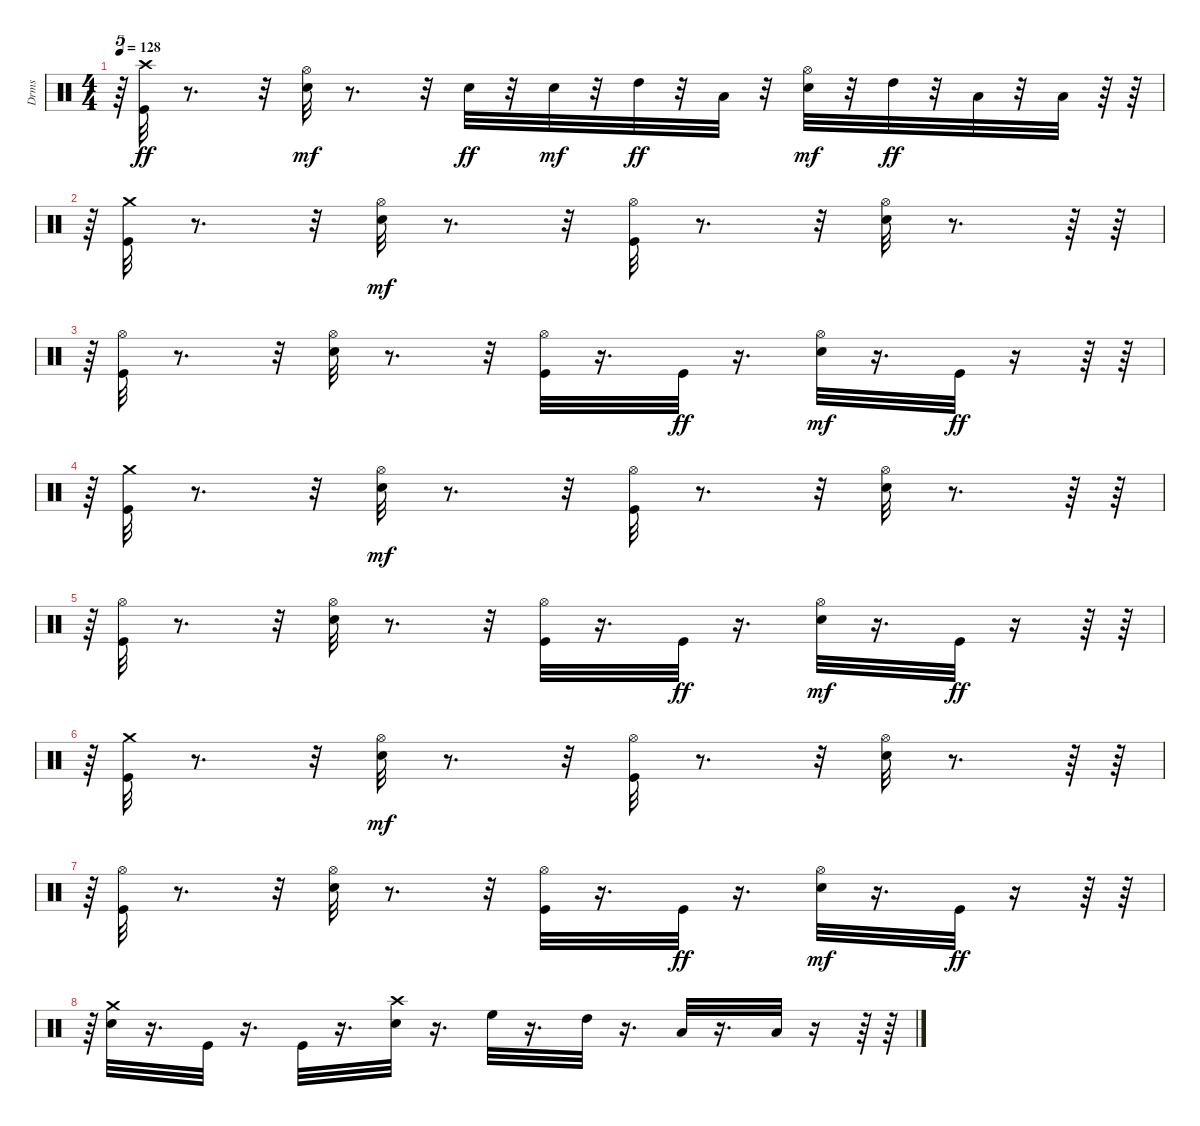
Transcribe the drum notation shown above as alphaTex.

\track ("Drms" "Drms") {instrument percussion}
\staff {score}
\articulation defaults
\ts (4 4)
\tempo 128
\clef neutral
\ks c
r.64{tu (5 4) dy ff} ("Kick (hit)" "Crash high (hit)").32 r.8{d} r.32 ("Snare (hit) 2" "Hi-Hat (open)").32{dy mf} r.8{d} r.32 "Snare (hit) 2".32{dy ff} r.32 "Snare (hit) 2".32{dy mf} r.32 "High Tom (hit)".32{dy ff} r.32 "Low Tom (hit)".32 r.32 ("Snare (hit) 2" "Hi-Hat (open)").32{dy mf} r.32 "High Tom (hit)".32{dy ff} r.32 "Low Tom (hit)".32 r.32 "Low Floor Tom (hit)".32 r.64 r.64 |
r.64{tu (5 4)} ("Kick (hit)" "Crash medium (hit)").32 r.8{d} r.32 ("Snare (hit) 2" "Hi-Hat (open)").32{dy mf} r.8{d} r.32 ("Kick (hit)" "Hi-Hat (open)").32 r.8{d} r.32 ("Snare (hit) 2" "Hi-Hat (open)").32 r.8{d} r.64 r.64 |
r.64{tu (5 4)} ("Kick (hit)" "Hi-Hat (open)").32 r.8{d} r.32 ("Snare (hit) 2" "Hi-Hat (open)").32 r.8{d} r.32 ("Kick (hit)" "Hi-Hat (open)").32 r.16{d} "Kick (hit)".32{dy ff} r.16{d} ("Snare (hit) 2" "Hi-Hat (open)").32{dy mf} r.16{d} "Kick (hit)".32{dy ff} r.16 r.64 r.64 |
r.64{tu (5 4)} ("Kick (hit)" "Crash medium (hit)").32 r.8{d} r.32 ("Snare (hit) 2" "Hi-Hat (open)").32{dy mf} r.8{d} r.32 ("Kick (hit)" "Hi-Hat (open)").32 r.8{d} r.32 ("Snare (hit) 2" "Hi-Hat (open)").32 r.8{d} r.64 r.64 |
r.64{tu (5 4)} ("Kick (hit)" "Hi-Hat (open)").32 r.8{d} r.32 ("Snare (hit) 2" "Hi-Hat (open)").32 r.8{d} r.32 ("Kick (hit)" "Hi-Hat (open)").32 r.16{d} "Kick (hit)".32{dy ff} r.16{d} ("Snare (hit) 2" "Hi-Hat (open)").32{dy mf} r.16{d} "Kick (hit)".32{dy ff} r.16 r.64 r.64 |
r.64{tu (5 4)} ("Kick (hit)" "Crash medium (hit)").32 r.8{d} r.32 ("Snare (hit) 2" "Hi-Hat (open)").32{dy mf} r.8{d} r.32 ("Kick (hit)" "Hi-Hat (open)").32 r.8{d} r.32 ("Snare (hit) 2" "Hi-Hat (open)").32 r.8{d} r.64 r.64 |
r.64{tu (5 4)} ("Kick (hit)" "Hi-Hat (open)").32 r.8{d} r.32 ("Snare (hit) 2" "Hi-Hat (open)").32 r.8{d} r.32 ("Kick (hit)" "Hi-Hat (open)").32 r.16{d} "Kick (hit)".32{dy ff} r.16{d} ("Snare (hit) 2" "Hi-Hat (open)").32{dy mf} r.16{d} "Kick (hit)".32{dy ff} r.16 r.64 r.64 |
r.64{tu (5 4)} ("Snare (hit) 2" "Crash medium (hit)").32 r.16{d} "Kick (hit)".32 r.16{d} "Kick (hit)".32 r.16{d} ("Snare (hit) 2" "Crash high (hit)").32 r.16{d} "High Floor Tom (hit)".32 r.16{d} "High Tom (hit)".32 r.16{d} "Low Tom (hit)".32 r.16{d} "Low Floor Tom (hit)".32 r.16 r.64 r.64
